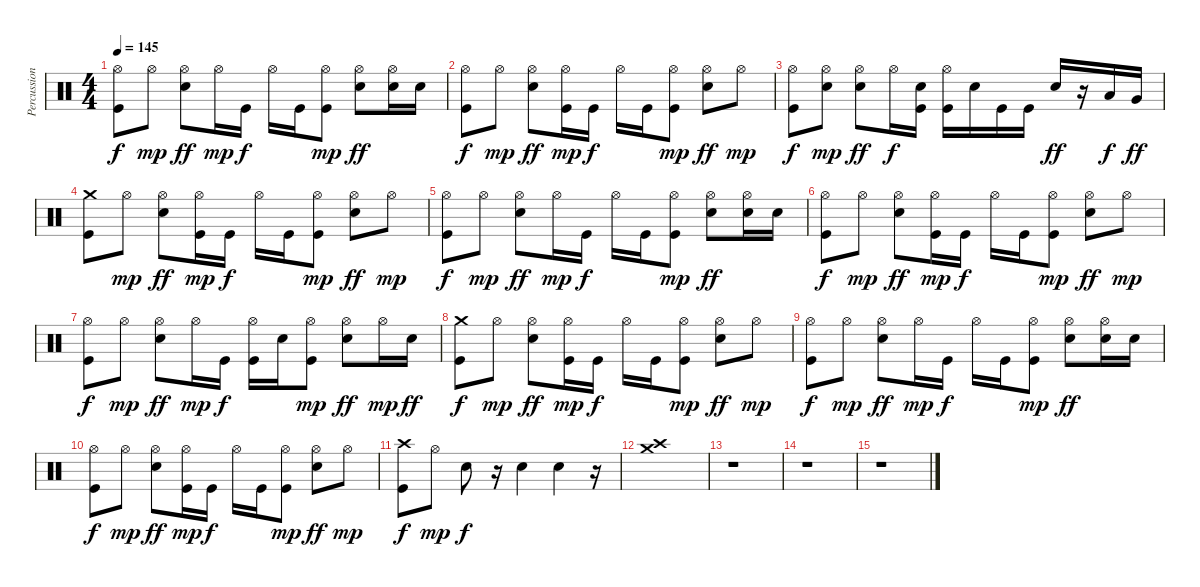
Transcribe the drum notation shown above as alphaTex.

\track ("Percussion" "Percussion") {instrument percussion}
\staff {score}
\articulation defaults
\ts (4 4)
\tempo 145
\clef neutral
\ks c
("Hi-Hat (open)" "Kick (hit)").8{dy f} "Hi-Hat (open)".8{dy mp} ("Hi-Hat (open)" "Snare (hit) 2").8{dy ff} "Hi-Hat (open)".16{dy mp} "Kick (hit)".16{dy f} "Hi-Hat (open)".16 "Kick (hit)".16 ("Hi-Hat (open)" "Kick (hit)").8{dy mp} ("Hi-Hat (open)" "Snare (hit) 2").8{dy ff} ("Hi-Hat (open)" "Snare (hit) 2").16 "Snare (hit) 2".16 |
("Hi-Hat (open)" "Kick (hit)").8{dy f} "Hi-Hat (open)".8{dy mp} ("Hi-Hat (open)" "Snare (hit) 2").8{dy ff} ("Hi-Hat (open)" "Kick (hit)").16{dy mp} "Kick (hit)".16{dy f} "Hi-Hat (open)".16 "Kick (hit)".16 ("Hi-Hat (open)" "Kick (hit)").8{dy mp} ("Hi-Hat (open)" "Snare (hit) 2").8{dy ff} "Hi-Hat (open)".8{dy mp} |
("Hi-Hat (open)" "Kick (hit)").8{dy f} ("Hi-Hat (open)" "Snare (hit) 2").8{dy mp} ("Hi-Hat (open)" "Snare (hit) 2").8{dy ff} "Hi-Hat (open)".16{dy f} ("Kick (hit)" "Snare (hit) 2").16 ("Hi-Hat (open)" "Kick (hit)").16 "Snare (hit) 2".16 "Kick (hit)".16 "Kick (hit)".16 "Snare (hit) 2".16{dy ff} r.16 "Low Tom (hit)".16{dy f} "Very Low Tom (hit)".16{dy ff} |
("Crash medium (hit)" "Kick (hit)").8 "Hi-Hat (open)".8{dy mp} ("Hi-Hat (open)" "Snare (hit) 2").8{dy ff} ("Hi-Hat (open)" "Kick (hit)").16{dy mp} "Kick (hit)".16{dy f} "Hi-Hat (open)".16 "Kick (hit)".16 ("Hi-Hat (open)" "Kick (hit)").8{dy mp} ("Hi-Hat (open)" "Snare (hit) 2").8{dy ff} "Hi-Hat (open)".8{dy mp} |
("Hi-Hat (open)" "Kick (hit)").8{dy f} "Hi-Hat (open)".8{dy mp} ("Hi-Hat (open)" "Snare (hit) 2").8{dy ff} "Hi-Hat (open)".16{dy mp} "Kick (hit)".16{dy f} "Hi-Hat (open)".16 "Kick (hit)".16 ("Hi-Hat (open)" "Kick (hit)").8{dy mp} ("Hi-Hat (open)" "Snare (hit) 2").8{dy ff} ("Hi-Hat (open)" "Snare (hit) 2").16 "Snare (hit) 2".16 |
("Hi-Hat (open)" "Kick (hit)").8{dy f} "Hi-Hat (open)".8{dy mp} ("Hi-Hat (open)" "Snare (hit) 2").8{dy ff} ("Hi-Hat (open)" "Kick (hit)").16{dy mp} "Kick (hit)".16{dy f} "Hi-Hat (open)".16 "Kick (hit)".16 ("Hi-Hat (open)" "Kick (hit)").8{dy mp} ("Hi-Hat (open)" "Snare (hit) 2").8{dy ff} "Hi-Hat (open)".8{dy mp} |
("Hi-Hat (open)" "Kick (hit)").8{dy f} "Hi-Hat (open)".8{dy mp} ("Hi-Hat (open)" "Snare (hit) 2").8{dy ff} "Hi-Hat (open)".16{dy mp} "Kick (hit)".16{dy f} ("Hi-Hat (open)" "Kick (hit)").16 "Snare (hit) 2".16 ("Hi-Hat (open)" "Kick (hit)").8{dy mp} ("Hi-Hat (open)" "Snare (hit) 2").8{dy ff} "Hi-Hat (open)".16{dy mp} "Snare (hit) 2".16{dy ff} |
("Crash medium (hit)" "Kick (hit)").8{dy f} "Hi-Hat (open)".8{dy mp} ("Hi-Hat (open)" "Snare (hit) 2").8{dy ff} ("Hi-Hat (open)" "Kick (hit)").16{dy mp} "Kick (hit)".16{dy f} "Hi-Hat (open)".16 "Kick (hit)".16 ("Hi-Hat (open)" "Kick (hit)").8{dy mp} ("Hi-Hat (open)" "Snare (hit) 2").8{dy ff} "Hi-Hat (open)".8{dy mp} |
("Hi-Hat (open)" "Kick (hit)").8{dy f} "Hi-Hat (open)".8{dy mp} ("Hi-Hat (open)" "Snare (hit) 2").8{dy ff} "Hi-Hat (open)".16{dy mp} "Kick (hit)".16{dy f} "Hi-Hat (open)".16 "Kick (hit)".16 ("Hi-Hat (open)" "Kick (hit)").8{dy mp} ("Hi-Hat (open)" "Snare (hit) 2").8{dy ff} ("Hi-Hat (open)" "Snare (hit) 2").16 "Snare (hit) 2".16 |
("Hi-Hat (open)" "Kick (hit)").8{dy f} "Hi-Hat (open)".8{dy mp} ("Hi-Hat (open)" "Snare (hit) 2").8{dy ff} ("Hi-Hat (open)" "Kick (hit)").16{dy mp} "Kick (hit)".16{dy f} "Hi-Hat (open)".16 "Kick (hit)".16 ("Hi-Hat (open)" "Kick (hit)").8{dy mp} ("Hi-Hat (open)" "Snare (hit) 2").8{dy ff} "Hi-Hat (open)".8{dy mp} |
("Crash high (hit)" "Kick (hit)").8{dy f} "Hi-Hat (open)".8{dy mp} "Snare (hit) 2".8{dy f} r.16 "Snare (hit) 2".4 "Snare (hit) 2".4 r.16 |
("Crash high (hit)" "Crash medium (hit)").1 |
r.1 |
r.1 |
r.1
